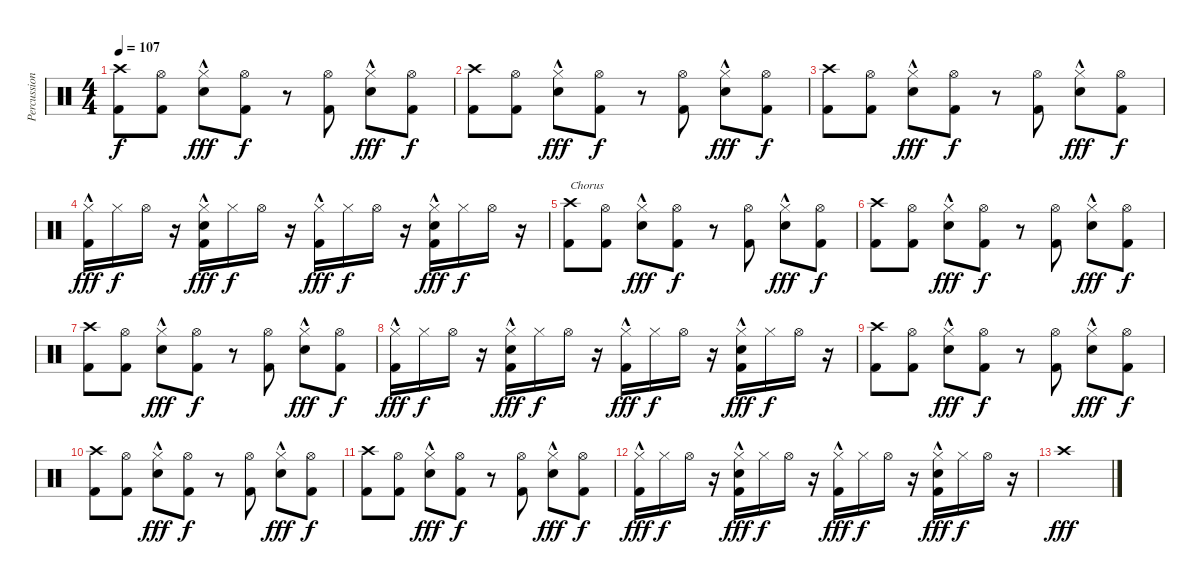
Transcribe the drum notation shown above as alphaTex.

\track ("Percussion" "Percussion") {instrument percussion}
\staff {score}
\articulation defaults
\ts (4 4)
\tempo 107
\clef neutral
\ks c
("Crash high (hit)" "Kick (hit) 2").8{dy f} ("Hi-Hat (open)" "Kick (hit) 2").8 ("Hi-Hat (closed)"{hac} "Snare (hit) 2").8{dy fff} ("Hi-Hat (open)" "Kick (hit) 2").8{dy f} r.8 ("Hi-Hat (open)" "Kick (hit) 2").8 ("Hi-Hat (closed)"{hac} "Snare (hit) 2").8{dy fff} ("Hi-Hat (open)" "Kick (hit) 2").8{dy f} |
("Crash high (hit)" "Kick (hit) 2").8 ("Hi-Hat (open)" "Kick (hit) 2").8 ("Hi-Hat (closed)"{hac} "Snare (hit) 2").8{dy fff} ("Hi-Hat (open)" "Kick (hit) 2").8{dy f} r.8 ("Hi-Hat (open)" "Kick (hit) 2").8 ("Hi-Hat (closed)"{hac} "Snare (hit) 2").8{dy fff} ("Hi-Hat (open)" "Kick (hit) 2").8{dy f} |
("Crash high (hit)" "Kick (hit) 2").8 ("Hi-Hat (open)" "Kick (hit) 2").8 ("Hi-Hat (closed)"{hac} "Snare (hit) 2").8{dy fff} ("Hi-Hat (open)" "Kick (hit) 2").8{dy f} r.8 ("Hi-Hat (open)" "Kick (hit) 2").8 ("Hi-Hat (closed)"{hac} "Snare (hit) 2").8{dy fff} ("Hi-Hat (open)" "Kick (hit) 2").8{dy f} |
("Hi-Hat (closed)"{hac} "Kick (hit) 2").16{dy fff} "Hi-Hat (closed)".16{dy f} "Hi-Hat (open)".16 r.16 ("Hi-Hat (closed)"{hac} "Snare (hit) 2" "Kick (hit) 2").16{dy fff} "Hi-Hat (closed)".16{dy f} "Hi-Hat (open)".16 r.16 ("Hi-Hat (closed)"{hac} "Kick (hit) 2").16{dy fff} "Hi-Hat (closed)".16{dy f} "Hi-Hat (open)".16 r.16 ("Hi-Hat (closed)"{hac} "Snare (hit) 2" "Kick (hit) 2").16{dy fff} "Hi-Hat (closed)".16{dy f} "Hi-Hat (open)".16 r.16 |
("Crash high (hit)" "Kick (hit) 2").8{txt "Chorus"} ("Hi-Hat (open)" "Kick (hit) 2").8 ("Hi-Hat (closed)"{hac} "Snare (hit) 2").8{dy fff} ("Hi-Hat (open)" "Kick (hit) 2").8{dy f} r.8 ("Hi-Hat (open)" "Kick (hit) 2").8 ("Hi-Hat (closed)"{hac} "Snare (hit) 2").8{dy fff} ("Hi-Hat (open)" "Kick (hit) 2").8{dy f} |
("Crash high (hit)" "Kick (hit) 2").8 ("Hi-Hat (open)" "Kick (hit) 2").8 ("Hi-Hat (closed)"{hac} "Snare (hit) 2").8{dy fff} ("Hi-Hat (open)" "Kick (hit) 2").8{dy f} r.8 ("Hi-Hat (open)" "Kick (hit) 2").8 ("Hi-Hat (closed)"{hac} "Snare (hit) 2").8{dy fff} ("Hi-Hat (open)" "Kick (hit) 2").8{dy f} |
("Crash high (hit)" "Kick (hit) 2").8 ("Hi-Hat (open)" "Kick (hit) 2").8 ("Hi-Hat (closed)"{hac} "Snare (hit) 2").8{dy fff} ("Hi-Hat (open)" "Kick (hit) 2").8{dy f} r.8 ("Hi-Hat (open)" "Kick (hit) 2").8 ("Hi-Hat (closed)"{hac} "Snare (hit) 2").8{dy fff} ("Hi-Hat (open)" "Kick (hit) 2").8{dy f} |
("Hi-Hat (closed)"{hac} "Kick (hit) 2").16{dy fff} "Hi-Hat (closed)".16{dy f} "Hi-Hat (open)".16 r.16 ("Hi-Hat (closed)"{hac} "Snare (hit) 2" "Kick (hit) 2").16{dy fff} "Hi-Hat (closed)".16{dy f} "Hi-Hat (open)".16 r.16 ("Hi-Hat (closed)"{hac} "Kick (hit) 2").16{dy fff} "Hi-Hat (closed)".16{dy f} "Hi-Hat (open)".16 r.16 ("Hi-Hat (closed)"{hac} "Snare (hit) 2" "Kick (hit) 2").16{dy fff} "Hi-Hat (closed)".16{dy f} "Hi-Hat (open)".16 r.16 |
("Crash high (hit)" "Kick (hit) 2").8 ("Hi-Hat (open)" "Kick (hit) 2").8 ("Hi-Hat (closed)"{hac} "Snare (hit) 2").8{dy fff} ("Hi-Hat (open)" "Kick (hit) 2").8{dy f} r.8 ("Hi-Hat (open)" "Kick (hit) 2").8 ("Hi-Hat (closed)"{hac} "Snare (hit) 2").8{dy fff} ("Hi-Hat (open)" "Kick (hit) 2").8{dy f} |
("Crash high (hit)" "Kick (hit) 2").8 ("Hi-Hat (open)" "Kick (hit) 2").8 ("Hi-Hat (closed)"{hac} "Snare (hit) 2").8{dy fff} ("Hi-Hat (open)" "Kick (hit) 2").8{dy f} r.8 ("Hi-Hat (open)" "Kick (hit) 2").8 ("Hi-Hat (closed)"{hac} "Snare (hit) 2").8{dy fff} ("Hi-Hat (open)" "Kick (hit) 2").8{dy f} |
("Crash high (hit)" "Kick (hit) 2").8 ("Hi-Hat (open)" "Kick (hit) 2").8 ("Hi-Hat (closed)"{hac} "Snare (hit) 2").8{dy fff} ("Hi-Hat (open)" "Kick (hit) 2").8{dy f} r.8 ("Hi-Hat (open)" "Kick (hit) 2").8 ("Hi-Hat (closed)"{hac} "Snare (hit) 2").8{dy fff} ("Hi-Hat (open)" "Kick (hit) 2").8{dy f} |
("Hi-Hat (closed)"{hac} "Kick (hit) 2").16{dy fff} "Hi-Hat (closed)".16{dy f} "Hi-Hat (open)".16 r.16 ("Hi-Hat (closed)"{hac} "Snare (hit) 2" "Kick (hit) 2").16{dy fff} "Hi-Hat (closed)".16{dy f} "Hi-Hat (open)".16 r.16 ("Hi-Hat (closed)"{hac} "Kick (hit) 2").16{dy fff} "Hi-Hat (closed)".16{dy f} "Hi-Hat (open)".16 r.16 ("Hi-Hat (closed)"{hac} "Snare (hit) 2" "Kick (hit) 2").16{dy fff} "Hi-Hat (closed)".16{dy f} "Hi-Hat (open)".16 r.16 |
"Crash high (hit)".1{dy fff}
